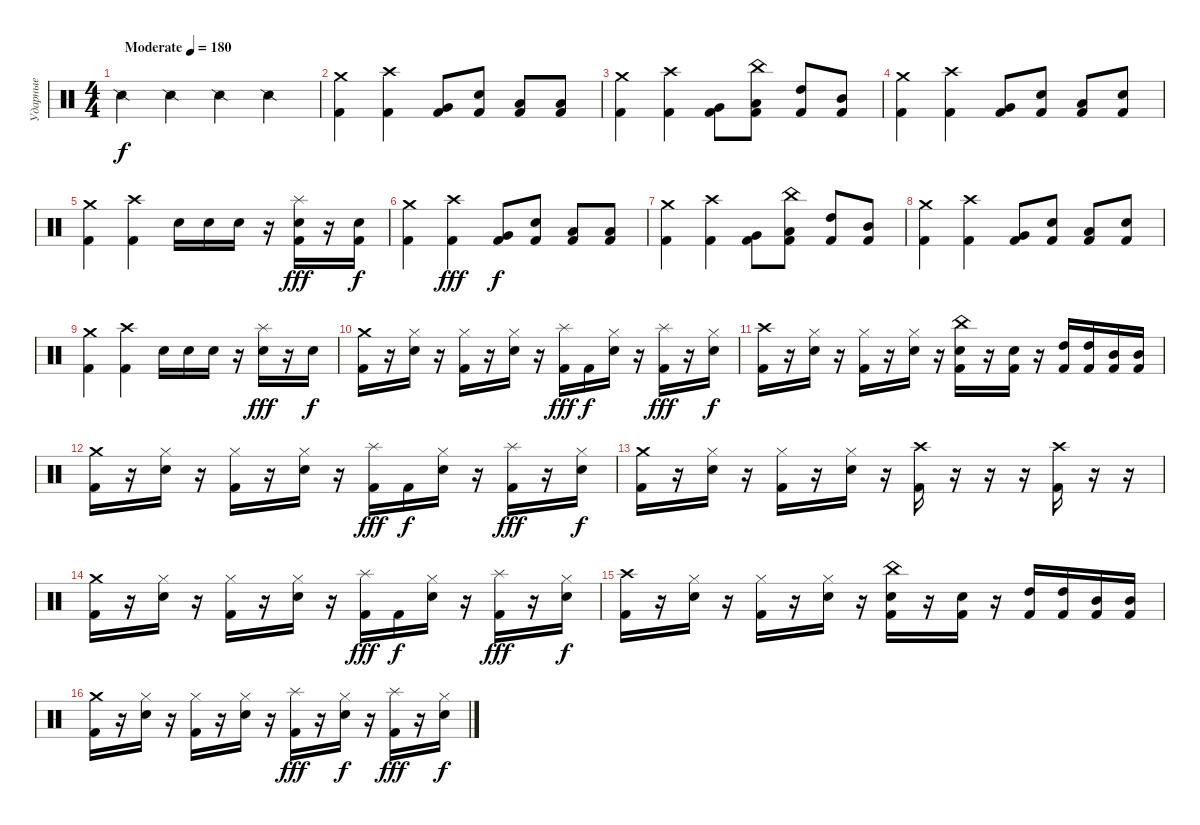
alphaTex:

\track ("Ударные" "Ударные") {instrument percussion}
\staff {score}
\articulation defaults
\ts (4 4)
\tempo (180 "Moderate")
\clef neutral
\ks c "Snare (side stick) 2".4{dy f} "Snare (side stick) 2".4 "Snare (side stick) 2".4 "Snare (side stick) 2".4
|
("Crash medium (hit)" "Kick (hit) 2").4 ("Crash high (hit)" "Kick (hit) 2").4 ("Very Low Tom (hit)" "Kick (hit) 2").8 ("Snare (hit) 2" "Kick (hit) 2").8 ("Low Tom (hit)" "Kick (hit) 2").8 ("Low Floor Tom (hit)" "Kick (hit) 2").8 |
("Crash medium (hit)" "Kick (hit) 2").4 ("Crash high (hit)" "Kick (hit) 2").4 ("Very Low Tom (hit)" "Kick (hit) 2").8 ("China (hit)" "Low Tom (hit)" "Kick (hit) 2").8 ("High Tom (hit)" "Kick (hit) 2").8 ("Mid Tom (hit)" "Kick (hit) 2").8 |
("Crash medium (hit)" "Kick (hit) 2").4 ("Crash high (hit)" "Kick (hit) 2").4 ("Very Low Tom (hit)" "Kick (hit) 2").8 ("Snare (hit) 2" "Kick (hit) 2").8 ("Low Tom (hit)" "Kick (hit) 2").8 ("Snare (hit) 2" "Kick (hit) 2").8 |
("Crash medium (hit)" "Kick (hit) 2").4 ("Crash high (hit)" "Kick (hit) 2").4 "Snare (hit) 2".16 "Snare (hit) 2".16 "Snare (hit) 2".16 r.16 ("Splash (hit)" "Snare (hit) 2" "Kick (hit) 2").16{dy fff} r.16 ("Snare (hit) 2" "Kick (hit) 2").16{dy f} |
("Crash medium (hit)" "Kick (hit) 2").4 ("Crash high (hit)" "Kick (hit) 2").4{dy fff} ("Very Low Tom (hit)" "Kick (hit) 2").8{dy f} ("Snare (hit) 2" "Kick (hit) 2").8 ("Low Tom (hit)" "Kick (hit) 2").8 ("Low Floor Tom (hit)" "Kick (hit) 2").8 |
("Crash medium (hit)" "Kick (hit) 2").4 ("Crash high (hit)" "Kick (hit) 2").4 ("Very Low Tom (hit)" "Kick (hit) 2").8 ("China (hit)" "Low Tom (hit)" "Kick (hit) 2").8 ("High Tom (hit)" "Kick (hit) 2").8 ("Mid Tom (hit)" "Kick (hit) 2").8 |
("Crash medium (hit)" "Kick (hit) 2").4 ("Crash high (hit)" "Kick (hit) 2").4 ("Very Low Tom (hit)" "Kick (hit) 2").8 ("Snare (hit) 2" "Kick (hit) 2").8 ("Low Tom (hit)" "Kick (hit) 2").8 ("Snare (hit) 2" "Kick (hit) 2").8 |
("Crash medium (hit)" "Kick (hit) 2").4 ("Crash high (hit)" "Kick (hit) 2").4 "Snare (hit) 2".16 "Snare (hit) 2".16 "Snare (hit) 2".16 r.16 ("Splash (hit)" "Snare (hit) 2").16{dy fff} r.16 "Snare (hit) 2".16{dy f} |
("Crash medium (hit)" "Kick (hit) 2").16 r.16 ("Hi-Hat (closed)" "Snare (hit) 2").16 r.16 ("Hi-Hat (closed)" "Kick (hit) 2").16 r.16 ("Hi-Hat (closed)" "Snare (hit) 2").16 r.16 ("Splash (hit)" "Kick (hit) 2").16{dy fff} "Kick (hit) 2".16{dy f} ("Hi-Hat (closed)" "Snare (hit) 2").16 r.16 ("Splash (hit)" "Kick (hit) 2").16{dy fff} r.16 ("Hi-Hat (closed)" "Snare (hit) 2").16{dy f} |
("Crash high (hit)" "Kick (hit) 2").16 r.16 ("Hi-Hat (closed)" "Snare (hit) 2").16 r.16 ("Hi-Hat (closed)" "Kick (hit) 2").16 r.16 ("Hi-Hat (closed)" "Snare (hit) 2").16 r.16 ("China (hit)" "Snare (hit) 2" "Kick (hit) 2").16 r.16 ("Snare (hit) 2" "Kick (hit) 2").16 r.16 ("High Tom (hit)" "Kick (hit) 2").16 ("High Tom (hit)" "Kick (hit) 2").16 ("Mid Tom (hit)" "Kick (hit) 2").16 ("Mid Tom (hit)" "Kick (hit) 2").16 |
("Crash medium (hit)" "Kick (hit) 2").16 r.16 ("Hi-Hat (closed)" "Snare (hit) 2").16 r.16 ("Hi-Hat (closed)" "Kick (hit) 2").16 r.16 ("Hi-Hat (closed)" "Snare (hit) 2").16 r.16 ("Splash (hit)" "Kick (hit) 2").16{dy fff} "Kick (hit) 2".16{dy f} ("Hi-Hat (closed)" "Snare (hit) 2").16 r.16 ("Splash (hit)" "Kick (hit) 2").16{dy fff} r.16 ("Hi-Hat (closed)" "Snare (hit) 2").16{dy f} |
("Crash medium (hit)" "Kick (hit) 2").16 r.16 ("Hi-Hat (closed)" "Snare (hit) 2").16 r.16 ("Hi-Hat (closed)" "Kick (hit) 2").16 r.16 ("Hi-Hat (closed)" "Snare (hit) 2").16 r.16 ("Crash high (hit)" "Kick (hit) 2").16 r.16 r.16 r.16 ("Crash high (hit)" "Kick (hit) 2").16 r.16 r.16 |
("Crash medium (hit)" "Kick (hit) 2").16 r.16 ("Hi-Hat (closed)" "Snare (hit) 2").16 r.16 ("Hi-Hat (closed)" "Kick (hit) 2").16 r.16 ("Hi-Hat (closed)" "Snare (hit) 2").16 r.16 ("Splash (hit)" "Kick (hit) 2").16{dy fff} "Kick (hit) 2".16{dy f} ("Hi-Hat (closed)" "Snare (hit) 2").16 r.16 ("Splash (hit)" "Kick (hit) 2").16{dy fff} r.16 ("Hi-Hat (closed)" "Snare (hit) 2").16{dy f} |
("Crash high (hit)" "Kick (hit) 2").16 r.16 ("Hi-Hat (closed)" "Snare (hit) 2").16 r.16 ("Hi-Hat (closed)" "Kick (hit) 2").16 r.16 ("Hi-Hat (closed)" "Snare (hit) 2").16 r.16 ("China (hit)" "Snare (hit) 2" "Kick (hit) 2").16 r.16 ("Snare (hit) 2" "Kick (hit) 2").16 r.16 ("High Tom (hit)" "Kick (hit) 2").16 ("High Tom (hit)" "Kick (hit) 2").16 ("Mid Tom (hit)" "Kick (hit) 2").16 ("Mid Tom (hit)" "Kick (hit) 2").16 |
("Crash medium (hit)" "Kick (hit) 2").16 r.16 ("Hi-Hat (closed)" "Snare (hit) 2").16 r.16 ("Hi-Hat (closed)" "Kick (hit) 2").16 r.16 ("Hi-Hat (closed)" "Snare (hit) 2").16 r.16 ("Splash (hit)" "Kick (hit) 2").16{dy fff} r.16 ("Hi-Hat (closed)" "Snare (hit) 2").16{dy f} r.16 ("Splash (hit)" "Kick (hit) 2").16{dy fff} r.16 ("Hi-Hat (closed)" "Snare (hit) 2").16{dy f}
